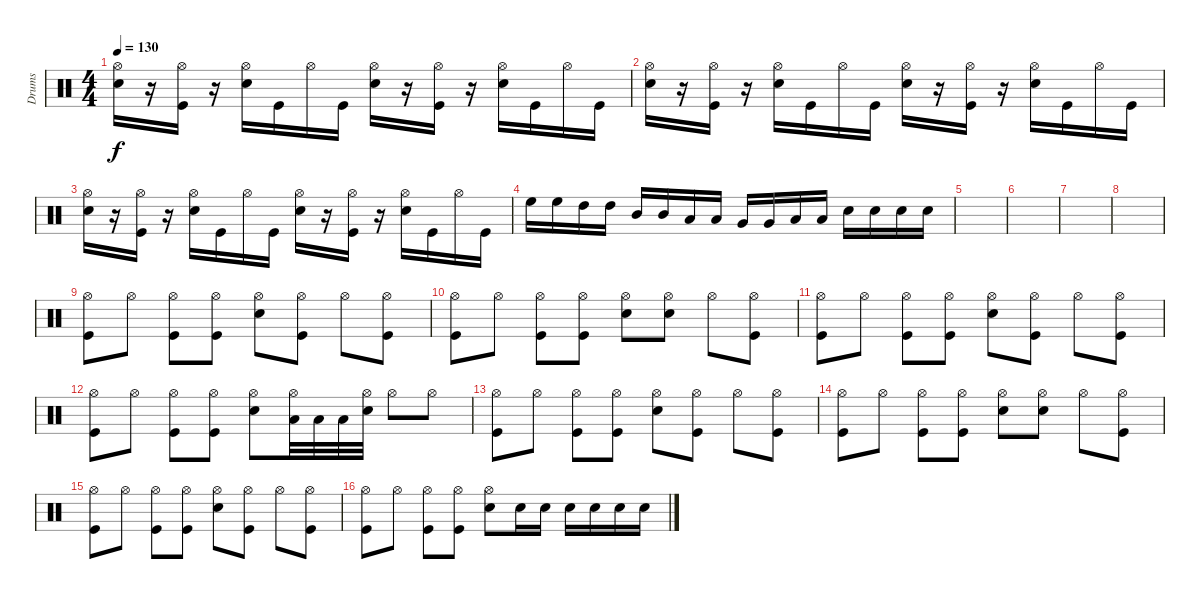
\track ("Drums" "Drums") {instrument percussion}
\staff {score}
\articulation defaults
\ts (4 4)
\tempo 130
\clef neutral
\ks c
("Hi-Hat (open)" "Snare (hit) 2").16{dy f} r.16 ("Hi-Hat (open)" "Kick (hit)").16 r.16 ("Hi-Hat (open)" "Snare (hit) 2").16 "Kick (hit)".16 "Hi-Hat (open)".16 "Kick (hit)".16 ("Hi-Hat (open)" "Snare (hit) 2").16 r.16 ("Hi-Hat (open)" "Kick (hit)").16 r.16 ("Hi-Hat (open)" "Snare (hit) 2").16 "Kick (hit)".16 "Hi-Hat (open)".16 "Kick (hit)".16 |
("Hi-Hat (open)" "Snare (hit) 2").16 r.16 ("Hi-Hat (open)" "Kick (hit)").16 r.16 ("Hi-Hat (open)" "Snare (hit) 2").16 "Kick (hit)".16 "Hi-Hat (open)".16 "Kick (hit)".16 ("Hi-Hat (open)" "Snare (hit) 2").16 r.16 ("Hi-Hat (open)" "Kick (hit)").16 r.16 ("Hi-Hat (open)" "Snare (hit) 2").16 "Kick (hit)".16 "Hi-Hat (open)".16 "Kick (hit)".16 |
("Hi-Hat (open)" "Snare (hit) 2").16 r.16 ("Hi-Hat (open)" "Kick (hit)").16 r.16 ("Hi-Hat (open)" "Snare (hit) 2").16 "Kick (hit)".16 "Hi-Hat (open)".16 "Kick (hit)".16 ("Hi-Hat (open)" "Snare (hit) 2").16 r.16 ("Hi-Hat (open)" "Kick (hit)").16 r.16 ("Hi-Hat (open)" "Snare (hit) 2").16 "Kick (hit)".16 "Hi-Hat (open)".16 "Kick (hit)".16 |
"High Floor Tom (hit)".16 "High Floor Tom (hit)".16 "High Tom (hit)".16 "High Tom (hit)".16 "Mid Tom (hit)".16 "Mid Tom (hit)".16 "Low Tom (hit)".16 "Low Tom (hit)".16 "Very Low Tom (hit)".16 "Very Low Tom (hit)".16 "Low Floor Tom (hit)".16 "Low Floor Tom (hit)".16 "Snare (hit) 2".16 "Snare (hit) 2".16 "Snare (hit) 2".16 "Snare (hit) 2".16 |
|
|
|
|
("Hi-Hat (open)" "Kick (hit)").8 "Hi-Hat (open)".8 ("Hi-Hat (open)" "Kick (hit)").8 ("Hi-Hat (open)" "Kick (hit)").8 ("Hi-Hat (open)" "Snare (hit) 2").8 ("Hi-Hat (open)" "Kick (hit)").8 "Hi-Hat (open)".8 ("Hi-Hat (open)" "Kick (hit)").8 |
("Hi-Hat (open)" "Kick (hit)").8 "Hi-Hat (open)".8 ("Hi-Hat (open)" "Kick (hit)").8 ("Hi-Hat (open)" "Kick (hit)").8 ("Hi-Hat (open)" "Snare (hit) 2").8 ("Hi-Hat (open)" "Snare (hit) 2").8 "Hi-Hat (open)".8 ("Hi-Hat (open)" "Kick (hit)").8 |
("Hi-Hat (open)" "Kick (hit)").8 "Hi-Hat (open)".8 ("Hi-Hat (open)" "Kick (hit)").8 ("Hi-Hat (open)" "Kick (hit)").8 ("Hi-Hat (open)" "Snare (hit) 2").8 ("Hi-Hat (open)" "Kick (hit)").8 "Hi-Hat (open)".8 ("Hi-Hat (open)" "Kick (hit)").8 |
("Hi-Hat (open)" "Kick (hit)").8 "Hi-Hat (open)".8 ("Hi-Hat (open)" "Kick (hit)").8 ("Hi-Hat (open)" "Kick (hit)").8 ("Hi-Hat (open)" "Snare (hit) 2").8 ("Hi-Hat (open)" "Low Floor Tom (hit)").32 "Low Floor Tom (hit)".32 "Low Floor Tom (hit)".32 ("Hi-Hat (open)" "Snare (hit) 2").32 "Hi-Hat (open)".8 "Hi-Hat (open)".8 |
("Hi-Hat (open)" "Kick (hit)").8 "Hi-Hat (open)".8 ("Hi-Hat (open)" "Kick (hit)").8 ("Hi-Hat (open)" "Kick (hit)").8 ("Hi-Hat (open)" "Snare (hit) 2").8 ("Hi-Hat (open)" "Kick (hit)").8 "Hi-Hat (open)".8 ("Hi-Hat (open)" "Kick (hit)").8 |
("Hi-Hat (open)" "Kick (hit)").8 "Hi-Hat (open)".8 ("Hi-Hat (open)" "Kick (hit)").8 ("Hi-Hat (open)" "Kick (hit)").8 ("Hi-Hat (open)" "Snare (hit) 2").8 ("Hi-Hat (open)" "Snare (hit) 2").8 "Hi-Hat (open)".8 ("Hi-Hat (open)" "Kick (hit)").8 |
("Hi-Hat (open)" "Kick (hit)").8 "Hi-Hat (open)".8 ("Hi-Hat (open)" "Kick (hit)").8 ("Hi-Hat (open)" "Kick (hit)").8 ("Hi-Hat (open)" "Snare (hit) 2").8 ("Hi-Hat (open)" "Kick (hit)").8 "Hi-Hat (open)".8 ("Hi-Hat (open)" "Kick (hit)").8 |
("Hi-Hat (open)" "Kick (hit)").8 "Hi-Hat (open)".8 ("Hi-Hat (open)" "Kick (hit)").8 ("Hi-Hat (open)" "Kick (hit)").8 ("Hi-Hat (open)" "Snare (hit) 2").8 "Snare (hit) 2".16 "Snare (hit) 2".16 "Snare (hit) 2".16 "Snare (hit) 2".16 "Snare (hit) 2".16 "Snare (hit) 2".16
